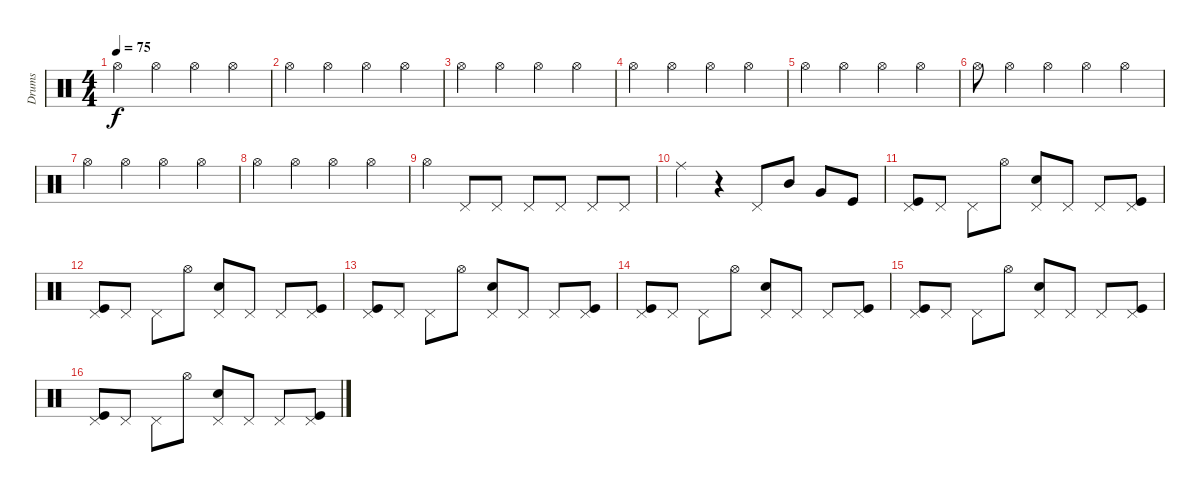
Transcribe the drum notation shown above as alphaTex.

\track ("Drums" "Drums") {instrument percussion}
\staff {score}
\articulation defaults
\ts (4 4)
\tempo 75
\clef neutral
\ks c "Hi-Hat (open)".4{dy f} "Hi-Hat (open)".4 "Hi-Hat (open)".4 "Hi-Hat (open)".4
|
"Hi-Hat (open)".4 "Hi-Hat (open)".4 "Hi-Hat (open)".4 "Hi-Hat (open)".4 |
"Hi-Hat (open)".4 "Hi-Hat (open)".4 "Hi-Hat (open)".4 "Hi-Hat (open)".4 |
"Hi-Hat (open)".4 "Hi-Hat (open)".4 "Hi-Hat (open)".4 "Hi-Hat (open)".4 |
"Hi-Hat (open)".4 "Hi-Hat (open)".4 "Hi-Hat (open)".4 "Hi-Hat (open)".4 |
"Hi-Hat (open)".8 "Hi-Hat (open)".4 "Hi-Hat (open)".4 "Hi-Hat (open)".4 "Hi-Hat (open)".4 |
"Hi-Hat (open)".4 "Hi-Hat (open)".4 "Hi-Hat (open)".4 "Hi-Hat (open)".4 |
"Hi-Hat (open)".4 "Hi-Hat (open)".4 "Hi-Hat (open)".4 "Hi-Hat (open)".4 |
"Hi-Hat (open)".4 "Pedal Hi-Hat (hit)".8 "Pedal Hi-Hat (hit)".8 "Pedal Hi-Hat (hit)".8 "Pedal Hi-Hat (hit)".8 "Pedal Hi-Hat (hit)".8 "Pedal Hi-Hat (hit)".8 |
"Ride (middle)".4 r.4 "Pedal Hi-Hat (hit)".8 "Mid Tom (hit)".8 "Very Low Tom (hit)".8 "Kick (hit)".8 |
("Pedal Hi-Hat (hit)" "Kick (hit)").8 "Pedal Hi-Hat (hit)".8 "Pedal Hi-Hat (hit)".8 "Hi-Hat (open)".8 ("Snare (hit) 2" "Pedal Hi-Hat (hit)").8 "Pedal Hi-Hat (hit)".8 "Pedal Hi-Hat (hit)".8 ("Kick (hit)" "Pedal Hi-Hat (hit)").8 |
("Pedal Hi-Hat (hit)" "Kick (hit)").8 "Pedal Hi-Hat (hit)".8 "Pedal Hi-Hat (hit)".8 "Hi-Hat (open)".8 ("Snare (hit) 2" "Pedal Hi-Hat (hit)").8 "Pedal Hi-Hat (hit)".8 "Pedal Hi-Hat (hit)".8 ("Kick (hit)" "Pedal Hi-Hat (hit)").8 |
("Pedal Hi-Hat (hit)" "Kick (hit)").8 "Pedal Hi-Hat (hit)".8 "Pedal Hi-Hat (hit)".8 "Hi-Hat (open)".8 ("Snare (hit) 2" "Pedal Hi-Hat (hit)").8 "Pedal Hi-Hat (hit)".8 "Pedal Hi-Hat (hit)".8 ("Kick (hit)" "Pedal Hi-Hat (hit)").8 |
("Pedal Hi-Hat (hit)" "Kick (hit)").8 "Pedal Hi-Hat (hit)".8 "Pedal Hi-Hat (hit)".8 "Hi-Hat (open)".8 ("Snare (hit) 2" "Pedal Hi-Hat (hit)").8 "Pedal Hi-Hat (hit)".8 "Pedal Hi-Hat (hit)".8 ("Kick (hit)" "Pedal Hi-Hat (hit)").8 |
("Pedal Hi-Hat (hit)" "Kick (hit)").8 "Pedal Hi-Hat (hit)".8 "Pedal Hi-Hat (hit)".8 "Hi-Hat (open)".8 ("Snare (hit) 2" "Pedal Hi-Hat (hit)").8 "Pedal Hi-Hat (hit)".8 "Pedal Hi-Hat (hit)".8 ("Kick (hit)" "Pedal Hi-Hat (hit)").8 |
("Pedal Hi-Hat (hit)" "Kick (hit)").8 "Pedal Hi-Hat (hit)".8 "Pedal Hi-Hat (hit)".8 "Hi-Hat (open)".8 ("Snare (hit) 2" "Pedal Hi-Hat (hit)").8 "Pedal Hi-Hat (hit)".8 "Pedal Hi-Hat (hit)".8 ("Kick (hit)" "Pedal Hi-Hat (hit)").8
